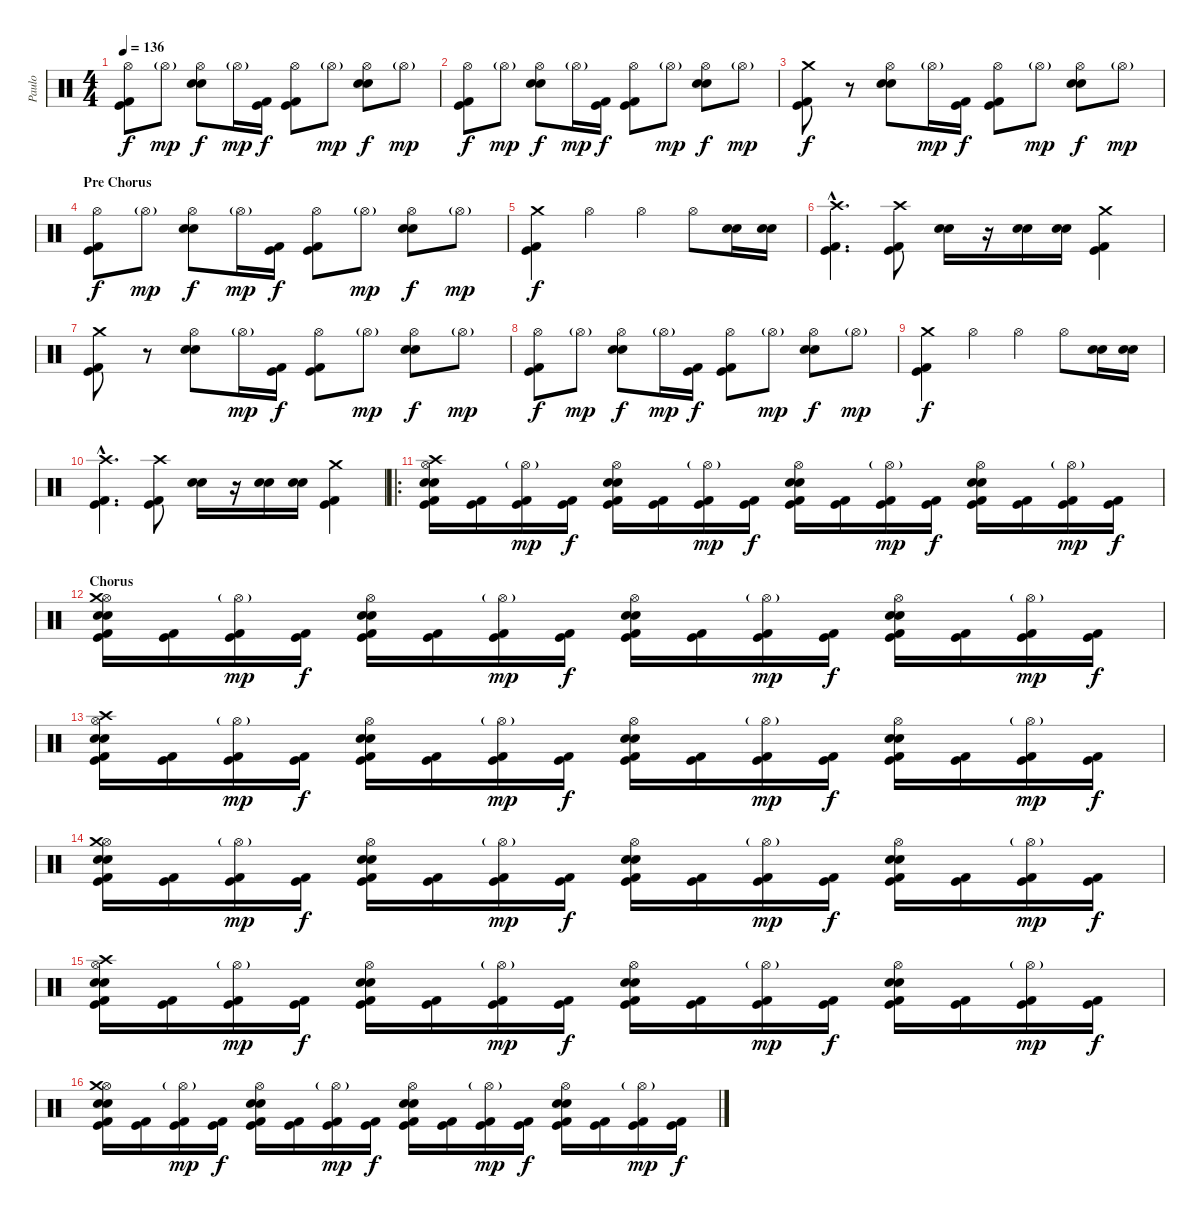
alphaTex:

\track ("Paulo" "Paulo") {instrument percussion}
\staff {score}
\articulation defaults
\ts (4 4)
\tempo 136
\clef neutral
\ks c
("Hi-Hat (open)" "Kick (hit) 2" "Kick (hit)").8{dy f} "Hi-Hat (open)"{g}.8{dy mp} ("Hi-Hat (open)" "Electric Snare (hit)" "Snare (hit) 2").8{dy f} "Hi-Hat (open)"{g}.16{dy mp} ("Kick (hit) 2" "Kick (hit)").16{dy f} ("Hi-Hat (open)" "Kick (hit) 2" "Kick (hit)").8 "Hi-Hat (open)"{g}.8{dy mp} ("Hi-Hat (open)" "Electric Snare (hit)" "Snare (hit) 2").8{dy f} "Hi-Hat (open)"{g}.8{dy mp} |
("Hi-Hat (open)" "Kick (hit) 2" "Kick (hit)").8{dy f} "Hi-Hat (open)"{g}.8{dy mp} ("Hi-Hat (open)" "Electric Snare (hit)" "Snare (hit) 2").8{dy f} "Hi-Hat (open)"{g}.16{dy mp} ("Kick (hit) 2" "Kick (hit)").16{dy f} ("Hi-Hat (open)" "Kick (hit) 2" "Kick (hit)").8 "Hi-Hat (open)"{g}.8{dy mp} ("Hi-Hat (open)" "Electric Snare (hit)" "Snare (hit) 2").8{dy f} "Hi-Hat (open)"{g}.8{dy mp} |
("Crash medium (hit)" "Kick (hit) 2" "Kick (hit)").8{dy f} r.8 ("Hi-Hat (open)" "Electric Snare (hit)" "Snare (hit) 2").8 "Hi-Hat (open)"{g}.16{dy mp} ("Kick (hit) 2" "Kick (hit)").16{dy f} ("Hi-Hat (open)" "Kick (hit) 2" "Kick (hit)").8 "Hi-Hat (open)"{g}.8{dy mp} ("Hi-Hat (open)" "Electric Snare (hit)" "Snare (hit) 2").8{dy f} "Hi-Hat (open)"{g}.8{dy mp} |
\section ("" "Pre Chorus")
("Hi-Hat (open)" "Kick (hit) 2" "Kick (hit)").8{dy f} "Hi-Hat (open)"{g}.8{dy mp} ("Hi-Hat (open)" "Electric Snare (hit)" "Snare (hit) 2").8{dy f} "Hi-Hat (open)"{g}.16{dy mp} ("Kick (hit) 2" "Kick (hit)").16{dy f} ("Hi-Hat (open)" "Kick (hit) 2" "Kick (hit)").8 "Hi-Hat (open)"{g}.8{dy mp} ("Hi-Hat (open)" "Electric Snare (hit)" "Snare (hit) 2").8{dy f} "Hi-Hat (open)"{g}.8{dy mp} |
("Crash medium (hit)" "Kick (hit) 2" "Kick (hit)").4{dy f} "Hi-Hat (open)".4 "Hi-Hat (open)".4 "Hi-Hat (open)".8 ("Snare (hit) 2" "Electric Snare (hit)").16 ("Snare (hit) 2" "Electric Snare (hit)").16 |
("Crash high (hit)"{hac} "Kick (hit) 2"{hac} "Kick (hit)"{hac}).4{d} ("Crash high (hit)" "Kick (hit) 2" "Kick (hit)").8 ("Snare (hit) 2" "Electric Snare (hit)").16 r.16 ("Snare (hit) 2" "Electric Snare (hit)").16 ("Snare (hit) 2" "Electric Snare (hit)").16 ("Crash medium (hit)" "Kick (hit) 2" "Kick (hit)").4 |
("Crash medium (hit)" "Kick (hit) 2" "Kick (hit)").8 r.8 ("Hi-Hat (open)" "Electric Snare (hit)" "Snare (hit) 2").8 "Hi-Hat (open)"{g}.16{dy mp} ("Kick (hit) 2" "Kick (hit)").16{dy f} ("Hi-Hat (open)" "Kick (hit) 2" "Kick (hit)").8 "Hi-Hat (open)"{g}.8{dy mp} ("Hi-Hat (open)" "Electric Snare (hit)" "Snare (hit) 2").8{dy f} "Hi-Hat (open)"{g}.8{dy mp} |
("Hi-Hat (open)" "Kick (hit) 2" "Kick (hit)").8{dy f} "Hi-Hat (open)"{g}.8{dy mp} ("Hi-Hat (open)" "Electric Snare (hit)" "Snare (hit) 2").8{dy f} "Hi-Hat (open)"{g}.16{dy mp} ("Kick (hit) 2" "Kick (hit)").16{dy f} ("Hi-Hat (open)" "Kick (hit) 2" "Kick (hit)").8 "Hi-Hat (open)"{g}.8{dy mp} ("Hi-Hat (open)" "Electric Snare (hit)" "Snare (hit) 2").8{dy f} "Hi-Hat (open)"{g}.8{dy mp} |
("Crash medium (hit)" "Kick (hit) 2" "Kick (hit)").4{dy f} "Hi-Hat (open)".4 "Hi-Hat (open)".4 "Hi-Hat (open)".8 ("Snare (hit) 2" "Electric Snare (hit)").16 ("Snare (hit) 2" "Electric Snare (hit)").16 |
("Crash high (hit)"{hac} "Kick (hit) 2"{hac} "Kick (hit)"{hac}).4{d} ("Crash high (hit)" "Kick (hit) 2" "Kick (hit)").8 ("Snare (hit) 2" "Electric Snare (hit)").16 r.16 ("Snare (hit) 2" "Electric Snare (hit)").16 ("Snare (hit) 2" "Electric Snare (hit)").16 ("Crash medium (hit)" "Kick (hit) 2" "Kick (hit)").4 |
\ro
("Hi-Hat (open)" "Snare (hit) 2" "Electric Snare (hit)" "Crash high (hit)" "Kick (hit) 2" "Kick (hit)").16 ("Kick (hit) 2" "Kick (hit)").16 ("Hi-Hat (open)"{g} "Kick (hit) 2" "Kick (hit)").16{dy mp} ("Kick (hit) 2" "Kick (hit)").16{dy f} ("Hi-Hat (open)" "Snare (hit) 2" "Electric Snare (hit)" "Kick (hit) 2" "Kick (hit)").16 ("Kick (hit) 2" "Kick (hit)").16 ("Hi-Hat (open)"{g} "Kick (hit) 2" "Kick (hit)").16{dy mp} ("Kick (hit) 2" "Kick (hit)").16{dy f} ("Hi-Hat (open)" "Snare (hit) 2" "Electric Snare (hit)" "Kick (hit) 2" "Kick (hit)").16 ("Kick (hit) 2" "Kick (hit)").16 ("Hi-Hat (open)"{g} "Kick (hit) 2" "Kick (hit)").16{dy mp} ("Kick (hit) 2" "Kick (hit)").16{dy f} ("Hi-Hat (open)" "Snare (hit) 2" "Electric Snare (hit)" "Kick (hit) 2" "Kick (hit)").16 ("Kick (hit) 2" "Kick (hit)").16 ("Hi-Hat (open)"{g} "Kick (hit) 2" "Kick (hit)").16{dy mp} ("Kick (hit) 2" "Kick (hit)").16{dy f} |
\section ("" "Chorus")
("Hi-Hat (open)" "Snare (hit) 2" "Electric Snare (hit)" "Crash medium (hit)" "Kick (hit) 2" "Kick (hit)").16 ("Kick (hit) 2" "Kick (hit)").16 ("Hi-Hat (open)"{g} "Kick (hit) 2" "Kick (hit)").16{dy mp} ("Kick (hit) 2" "Kick (hit)").16{dy f} ("Hi-Hat (open)" "Snare (hit) 2" "Electric Snare (hit)" "Kick (hit) 2" "Kick (hit)").16 ("Kick (hit) 2" "Kick (hit)").16 ("Hi-Hat (open)"{g} "Kick (hit) 2" "Kick (hit)").16{dy mp} ("Kick (hit) 2" "Kick (hit)").16{dy f} ("Hi-Hat (open)" "Snare (hit) 2" "Electric Snare (hit)" "Kick (hit) 2" "Kick (hit)").16 ("Kick (hit) 2" "Kick (hit)").16 ("Hi-Hat (open)"{g} "Kick (hit) 2" "Kick (hit)").16{dy mp} ("Kick (hit) 2" "Kick (hit)").16{dy f} ("Hi-Hat (open)" "Snare (hit) 2" "Electric Snare (hit)" "Kick (hit) 2" "Kick (hit)").16 ("Kick (hit) 2" "Kick (hit)").16 ("Hi-Hat (open)"{g} "Kick (hit) 2" "Kick (hit)").16{dy mp} ("Kick (hit) 2" "Kick (hit)").16{dy f} |
("Hi-Hat (open)" "Snare (hit) 2" "Electric Snare (hit)" "Crash high (hit)" "Kick (hit) 2" "Kick (hit)").16 ("Kick (hit) 2" "Kick (hit)").16 ("Hi-Hat (open)"{g} "Kick (hit) 2" "Kick (hit)").16{dy mp} ("Kick (hit) 2" "Kick (hit)").16{dy f} ("Hi-Hat (open)" "Snare (hit) 2" "Electric Snare (hit)" "Kick (hit) 2" "Kick (hit)").16 ("Kick (hit) 2" "Kick (hit)").16 ("Hi-Hat (open)"{g} "Kick (hit) 2" "Kick (hit)").16{dy mp} ("Kick (hit) 2" "Kick (hit)").16{dy f} ("Hi-Hat (open)" "Snare (hit) 2" "Electric Snare (hit)" "Kick (hit) 2" "Kick (hit)").16 ("Kick (hit) 2" "Kick (hit)").16 ("Hi-Hat (open)"{g} "Kick (hit) 2" "Kick (hit)").16{dy mp} ("Kick (hit) 2" "Kick (hit)").16{dy f} ("Hi-Hat (open)" "Snare (hit) 2" "Electric Snare (hit)" "Kick (hit) 2" "Kick (hit)").16 ("Kick (hit) 2" "Kick (hit)").16 ("Hi-Hat (open)"{g} "Kick (hit) 2" "Kick (hit)").16{dy mp} ("Kick (hit) 2" "Kick (hit)").16{dy f} |
("Hi-Hat (open)" "Snare (hit) 2" "Electric Snare (hit)" "Crash medium (hit)" "Kick (hit) 2" "Kick (hit)").16 ("Kick (hit) 2" "Kick (hit)").16 ("Hi-Hat (open)"{g} "Kick (hit) 2" "Kick (hit)").16{dy mp} ("Kick (hit) 2" "Kick (hit)").16{dy f} ("Hi-Hat (open)" "Snare (hit) 2" "Electric Snare (hit)" "Kick (hit) 2" "Kick (hit)").16 ("Kick (hit) 2" "Kick (hit)").16 ("Hi-Hat (open)"{g} "Kick (hit) 2" "Kick (hit)").16{dy mp} ("Kick (hit) 2" "Kick (hit)").16{dy f} ("Hi-Hat (open)" "Snare (hit) 2" "Electric Snare (hit)" "Kick (hit) 2" "Kick (hit)").16 ("Kick (hit) 2" "Kick (hit)").16 ("Hi-Hat (open)"{g} "Kick (hit) 2" "Kick (hit)").16{dy mp} ("Kick (hit) 2" "Kick (hit)").16{dy f} ("Hi-Hat (open)" "Snare (hit) 2" "Electric Snare (hit)" "Kick (hit) 2" "Kick (hit)").16 ("Kick (hit) 2" "Kick (hit)").16 ("Hi-Hat (open)"{g} "Kick (hit) 2" "Kick (hit)").16{dy mp} ("Kick (hit) 2" "Kick (hit)").16{dy f} |
("Hi-Hat (open)" "Snare (hit) 2" "Electric Snare (hit)" "Crash high (hit)" "Kick (hit) 2" "Kick (hit)").16 ("Kick (hit) 2" "Kick (hit)").16 ("Hi-Hat (open)"{g} "Kick (hit) 2" "Kick (hit)").16{dy mp} ("Kick (hit) 2" "Kick (hit)").16{dy f} ("Hi-Hat (open)" "Snare (hit) 2" "Electric Snare (hit)" "Kick (hit) 2" "Kick (hit)").16 ("Kick (hit) 2" "Kick (hit)").16 ("Hi-Hat (open)"{g} "Kick (hit) 2" "Kick (hit)").16{dy mp} ("Kick (hit) 2" "Kick (hit)").16{dy f} ("Hi-Hat (open)" "Snare (hit) 2" "Electric Snare (hit)" "Kick (hit) 2" "Kick (hit)").16 ("Kick (hit) 2" "Kick (hit)").16 ("Hi-Hat (open)"{g} "Kick (hit) 2" "Kick (hit)").16{dy mp} ("Kick (hit) 2" "Kick (hit)").16{dy f} ("Hi-Hat (open)" "Snare (hit) 2" "Electric Snare (hit)" "Kick (hit) 2" "Kick (hit)").16 ("Kick (hit) 2" "Kick (hit)").16 ("Hi-Hat (open)"{g} "Kick (hit) 2" "Kick (hit)").16{dy mp} ("Kick (hit) 2" "Kick (hit)").16{dy f} |
("Hi-Hat (open)" "Snare (hit) 2" "Electric Snare (hit)" "Crash medium (hit)" "Kick (hit) 2" "Kick (hit)").16 ("Kick (hit) 2" "Kick (hit)").16 ("Hi-Hat (open)"{g} "Kick (hit) 2" "Kick (hit)").16{dy mp} ("Kick (hit) 2" "Kick (hit)").16{dy f} ("Hi-Hat (open)" "Snare (hit) 2" "Electric Snare (hit)" "Kick (hit) 2" "Kick (hit)").16 ("Kick (hit) 2" "Kick (hit)").16 ("Hi-Hat (open)"{g} "Kick (hit) 2" "Kick (hit)").16{dy mp} ("Kick (hit) 2" "Kick (hit)").16{dy f} ("Hi-Hat (open)" "Snare (hit) 2" "Electric Snare (hit)" "Kick (hit) 2" "Kick (hit)").16 ("Kick (hit) 2" "Kick (hit)").16 ("Hi-Hat (open)"{g} "Kick (hit) 2" "Kick (hit)").16{dy mp} ("Kick (hit) 2" "Kick (hit)").16{dy f} ("Hi-Hat (open)" "Snare (hit) 2" "Electric Snare (hit)" "Kick (hit) 2" "Kick (hit)").16 ("Kick (hit) 2" "Kick (hit)").16 ("Hi-Hat (open)"{g} "Kick (hit) 2" "Kick (hit)").16{dy mp} ("Kick (hit) 2" "Kick (hit)").16{dy f}
